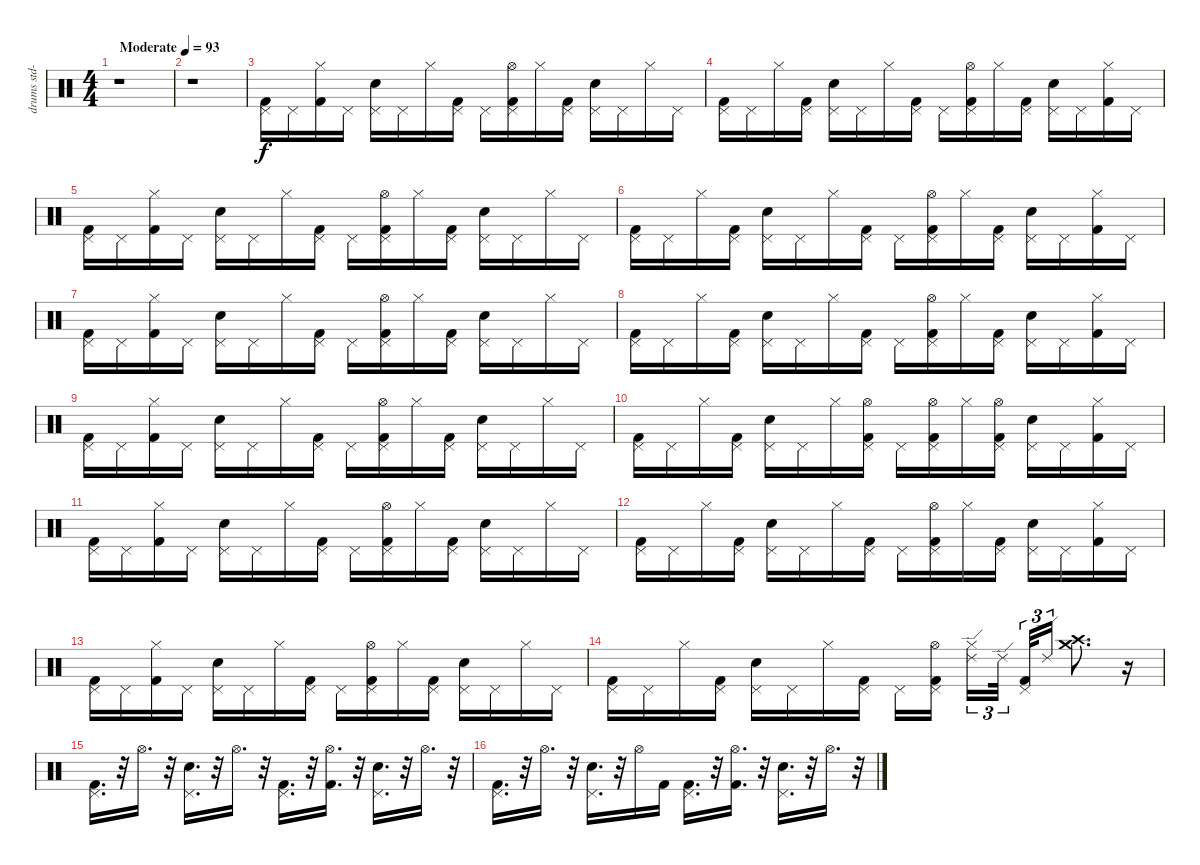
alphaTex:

\track ("drums std-0" "drums std-") {instrument percussion}
\staff {score}
\articulation defaults
\ts (4 4)
\tempo (93 "Moderate")
\clef neutral
\ks c
r.1{dy f} |
r.1 |
("Pedal Hi-Hat (hit)" "Kick (hit) 2").16 "Pedal Hi-Hat (hit)".16 ("Hi-Hat (closed)" "Kick (hit) 2").16 "Pedal Hi-Hat (hit)".16 ("Pedal Hi-Hat (hit)" "Snare (hit) 2").16 "Pedal Hi-Hat (hit)".16 "Hi-Hat (closed)".16 ("Pedal Hi-Hat (hit)" "Kick (hit) 2").16 "Pedal Hi-Hat (hit)".16 ("Pedal Hi-Hat (hit)" "Kick (hit) 2" "Hi-Hat (open)").16 "Hi-Hat (closed)".16 ("Pedal Hi-Hat (hit)" "Kick (hit) 2").16 ("Pedal Hi-Hat (hit)" "Snare (hit) 2").16 "Pedal Hi-Hat (hit)".16 "Hi-Hat (closed)".16 "Pedal Hi-Hat (hit)".16 |
("Pedal Hi-Hat (hit)" "Kick (hit) 2").16 "Pedal Hi-Hat (hit)".16 "Hi-Hat (closed)".16 ("Pedal Hi-Hat (hit)" "Kick (hit) 2").16 ("Pedal Hi-Hat (hit)" "Snare (hit) 2").16 "Pedal Hi-Hat (hit)".16 "Hi-Hat (closed)".16 ("Pedal Hi-Hat (hit)" "Kick (hit) 2").16 "Pedal Hi-Hat (hit)".16 ("Pedal Hi-Hat (hit)" "Kick (hit) 2" "Hi-Hat (open)").16 "Hi-Hat (closed)".16 ("Pedal Hi-Hat (hit)" "Kick (hit) 2").16 ("Pedal Hi-Hat (hit)" "Snare (hit) 2").16 "Pedal Hi-Hat (hit)".16 ("Hi-Hat (closed)" "Kick (hit) 2").16 "Pedal Hi-Hat (hit)".16 |
("Pedal Hi-Hat (hit)" "Kick (hit) 2").16 "Pedal Hi-Hat (hit)".16 ("Hi-Hat (closed)" "Kick (hit) 2").16 "Pedal Hi-Hat (hit)".16 ("Pedal Hi-Hat (hit)" "Snare (hit) 2").16 "Pedal Hi-Hat (hit)".16 "Hi-Hat (closed)".16 ("Pedal Hi-Hat (hit)" "Kick (hit) 2").16 "Pedal Hi-Hat (hit)".16 ("Pedal Hi-Hat (hit)" "Kick (hit) 2" "Hi-Hat (open)").16 "Hi-Hat (closed)".16 ("Pedal Hi-Hat (hit)" "Kick (hit) 2").16 ("Pedal Hi-Hat (hit)" "Snare (hit) 2").16 "Pedal Hi-Hat (hit)".16 "Hi-Hat (closed)".16 "Pedal Hi-Hat (hit)".16 |
("Pedal Hi-Hat (hit)" "Kick (hit) 2").16 "Pedal Hi-Hat (hit)".16 "Hi-Hat (closed)".16 ("Pedal Hi-Hat (hit)" "Kick (hit) 2").16 ("Pedal Hi-Hat (hit)" "Snare (hit) 2").16 "Pedal Hi-Hat (hit)".16 "Hi-Hat (closed)".16 ("Pedal Hi-Hat (hit)" "Kick (hit) 2").16 "Pedal Hi-Hat (hit)".16 ("Pedal Hi-Hat (hit)" "Kick (hit) 2" "Hi-Hat (open)").16 "Hi-Hat (closed)".16 ("Pedal Hi-Hat (hit)" "Kick (hit) 2").16 ("Pedal Hi-Hat (hit)" "Snare (hit) 2").16 "Pedal Hi-Hat (hit)".16 ("Hi-Hat (closed)" "Kick (hit) 2").16 "Pedal Hi-Hat (hit)".16 |
("Pedal Hi-Hat (hit)" "Kick (hit) 2").16 "Pedal Hi-Hat (hit)".16 ("Hi-Hat (closed)" "Kick (hit) 2").16 "Pedal Hi-Hat (hit)".16 ("Pedal Hi-Hat (hit)" "Snare (hit) 2").16 "Pedal Hi-Hat (hit)".16 "Hi-Hat (closed)".16 ("Pedal Hi-Hat (hit)" "Kick (hit) 2").16 "Pedal Hi-Hat (hit)".16 ("Pedal Hi-Hat (hit)" "Kick (hit) 2" "Hi-Hat (open)").16 "Hi-Hat (closed)".16 ("Pedal Hi-Hat (hit)" "Kick (hit) 2").16 ("Pedal Hi-Hat (hit)" "Snare (hit) 2").16 "Pedal Hi-Hat (hit)".16 "Hi-Hat (closed)".16 "Pedal Hi-Hat (hit)".16 |
("Pedal Hi-Hat (hit)" "Kick (hit) 2").16 "Pedal Hi-Hat (hit)".16 "Hi-Hat (closed)".16 ("Pedal Hi-Hat (hit)" "Kick (hit) 2").16 ("Pedal Hi-Hat (hit)" "Snare (hit) 2").16 "Pedal Hi-Hat (hit)".16 "Hi-Hat (closed)".16 ("Pedal Hi-Hat (hit)" "Kick (hit) 2").16 "Pedal Hi-Hat (hit)".16 ("Pedal Hi-Hat (hit)" "Kick (hit) 2" "Hi-Hat (open)").16 "Hi-Hat (closed)".16 ("Pedal Hi-Hat (hit)" "Kick (hit) 2").16 ("Pedal Hi-Hat (hit)" "Snare (hit) 2").16 "Pedal Hi-Hat (hit)".16 ("Hi-Hat (closed)" "Kick (hit) 2").16 "Pedal Hi-Hat (hit)".16 |
("Pedal Hi-Hat (hit)" "Kick (hit) 2").16 "Pedal Hi-Hat (hit)".16 ("Hi-Hat (closed)" "Kick (hit) 2").16 "Pedal Hi-Hat (hit)".16 ("Pedal Hi-Hat (hit)" "Snare (hit) 2").16 "Pedal Hi-Hat (hit)".16 "Hi-Hat (closed)".16 ("Pedal Hi-Hat (hit)" "Kick (hit) 2").16 "Pedal Hi-Hat (hit)".16 ("Pedal Hi-Hat (hit)" "Kick (hit) 2" "Hi-Hat (open)").16 "Hi-Hat (closed)".16 ("Pedal Hi-Hat (hit)" "Kick (hit) 2").16 ("Pedal Hi-Hat (hit)" "Snare (hit) 2").16 "Pedal Hi-Hat (hit)".16 "Hi-Hat (closed)".16 "Pedal Hi-Hat (hit)".16 |
("Pedal Hi-Hat (hit)" "Kick (hit) 2").16 "Pedal Hi-Hat (hit)".16 "Hi-Hat (closed)".16 ("Pedal Hi-Hat (hit)" "Kick (hit) 2").16 ("Pedal Hi-Hat (hit)" "Snare (hit) 2").16 "Pedal Hi-Hat (hit)".16 "Hi-Hat (closed)".16 ("Pedal Hi-Hat (hit)" "Kick (hit) 2" "Hi-Hat (open)").16 "Pedal Hi-Hat (hit)".16 ("Pedal Hi-Hat (hit)" "Kick (hit) 2" "Hi-Hat (open)").16 "Hi-Hat (closed)".16 ("Pedal Hi-Hat (hit)" "Kick (hit) 2" "Hi-Hat (open)").16 ("Pedal Hi-Hat (hit)" "Snare (hit) 2").16 "Pedal Hi-Hat (hit)".16 ("Hi-Hat (closed)" "Kick (hit) 2").16 "Pedal Hi-Hat (hit)".16 |
("Pedal Hi-Hat (hit)" "Kick (hit) 2").16 "Pedal Hi-Hat (hit)".16 ("Hi-Hat (closed)" "Kick (hit) 2").16 "Pedal Hi-Hat (hit)".16 ("Pedal Hi-Hat (hit)" "Snare (hit) 2").16 "Pedal Hi-Hat (hit)".16 "Hi-Hat (closed)".16 ("Pedal Hi-Hat (hit)" "Kick (hit) 2").16 "Pedal Hi-Hat (hit)".16 ("Pedal Hi-Hat (hit)" "Kick (hit) 2" "Hi-Hat (open)").16 "Hi-Hat (closed)".16 ("Pedal Hi-Hat (hit)" "Kick (hit) 2").16 ("Pedal Hi-Hat (hit)" "Snare (hit) 2").16 "Pedal Hi-Hat (hit)".16 "Hi-Hat (closed)".16 "Pedal Hi-Hat (hit)".16 |
("Pedal Hi-Hat (hit)" "Kick (hit) 2").16 "Pedal Hi-Hat (hit)".16 "Hi-Hat (closed)".16 ("Pedal Hi-Hat (hit)" "Kick (hit) 2").16 ("Pedal Hi-Hat (hit)" "Snare (hit) 2").16 "Pedal Hi-Hat (hit)".16 "Hi-Hat (closed)".16 ("Pedal Hi-Hat (hit)" "Kick (hit) 2").16 "Pedal Hi-Hat (hit)".16 ("Pedal Hi-Hat (hit)" "Kick (hit) 2" "Hi-Hat (open)").16 "Hi-Hat (closed)".16 ("Pedal Hi-Hat (hit)" "Kick (hit) 2").16 ("Pedal Hi-Hat (hit)" "Snare (hit) 2").16 "Pedal Hi-Hat (hit)".16 ("Hi-Hat (closed)" "Kick (hit) 2").16 "Pedal Hi-Hat (hit)".16 |
("Pedal Hi-Hat (hit)" "Kick (hit) 2").16 "Pedal Hi-Hat (hit)".16 ("Hi-Hat (closed)" "Kick (hit) 2").16 "Pedal Hi-Hat (hit)".16 ("Pedal Hi-Hat (hit)" "Snare (hit) 2").16 "Pedal Hi-Hat (hit)".16 "Hi-Hat (closed)".16 ("Pedal Hi-Hat (hit)" "Kick (hit) 2").16 "Pedal Hi-Hat (hit)".16 ("Pedal Hi-Hat (hit)" "Kick (hit) 2" "Hi-Hat (open)").16 "Hi-Hat (closed)".16 ("Pedal Hi-Hat (hit)" "Kick (hit) 2").16 ("Pedal Hi-Hat (hit)" "Snare (hit) 2").16 "Pedal Hi-Hat (hit)".16 "Hi-Hat (closed)".16 "Pedal Hi-Hat (hit)".16 |
("Pedal Hi-Hat (hit)" "Kick (hit) 2").16 "Pedal Hi-Hat (hit)".16 "Hi-Hat (closed)".16 ("Pedal Hi-Hat (hit)" "Kick (hit) 2").16 ("Pedal Hi-Hat (hit)" "Snare (hit) 2").16 "Pedal Hi-Hat (hit)".16 "Hi-Hat (closed)".16 ("Pedal Hi-Hat (hit)" "Kick (hit) 2").16 "Pedal Hi-Hat (hit)".16 ("Pedal Hi-Hat (hit)" "Kick (hit) 2" "Hi-Hat (open)").16 ("Ride (edge) 2" "Hi-Hat (closed)").16{tu (3 2)} "Ride (edge) 2".32{tu (3 2)} ("Pedal Hi-Hat (hit)" "Kick (hit) 2").32{tu (3 2)} "Ride (edge) 2".16{tu (3 2)} ("Crash medium (hit)" "Crash high (hit)").8{d} r.16 |
("Pedal Hi-Hat (hit)" "Kick (hit) 2").16{d} r.32 "Hi-Hat (open)".16{d} r.32 ("Pedal Hi-Hat (hit)" "Snare (hit) 2").16{d} r.32 "Hi-Hat (open)".16{d} r.32 ("Pedal Hi-Hat (hit)" "Kick (hit) 2").16{d} r.32 ("Hi-Hat (open)" "Kick (hit) 2").16{d} r.32 ("Pedal Hi-Hat (hit)" "Snare (hit) 2").16{d} r.32 "Hi-Hat (open)".16{d} r.32 |
("Pedal Hi-Hat (hit)" "Kick (hit) 2").16{d} r.32 "Hi-Hat (open)".16{d} r.32 ("Pedal Hi-Hat (hit)" "Snare (hit) 2").16{d} r.32 "Hi-Hat (open)".16 "Kick (hit) 2".16 ("Pedal Hi-Hat (hit)" "Kick (hit) 2").16{d} r.32 ("Hi-Hat (open)" "Kick (hit) 2").16{d} r.32 ("Pedal Hi-Hat (hit)" "Snare (hit) 2").16{d} r.32 "Hi-Hat (open)".16{d} r.32
